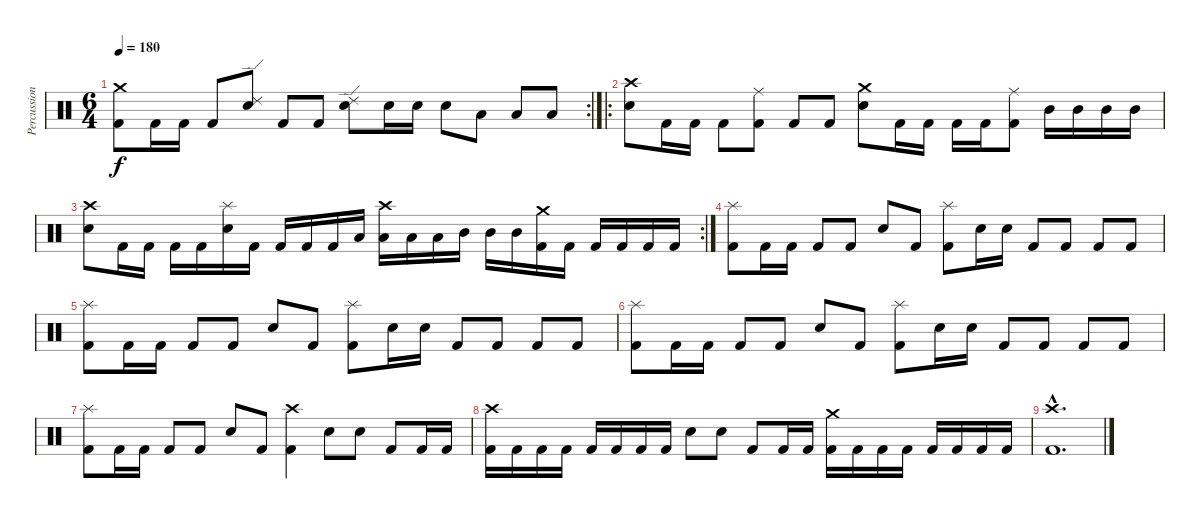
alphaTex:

\track ("Percussion" "Percussion") {instrument percussion}
\staff {score}
\articulation defaults
\rc 2
\ts (6 4)
\tempo 180
\clef neutral
\ks c
("Crash medium (hit)" "Kick (hit) 2").8{dy f} "Kick (hit) 2".16 "Kick (hit) 2".16 "Kick (hit) 2".8 ("Ride (edge) 2" "Snare (hit) 2").8 "Kick (hit) 2".8 "Kick (hit) 2".8 ("Ride (edge) 2" "Snare (hit) 2").8 "Snare (hit) 2".16 "Snare (hit) 2".16 "Snare (hit) 2".8 "Low Tom (hit)".8 "Low Tom (hit)".8 "Low Tom (hit)".8 |
\ro
("Crash high (hit)" "Snare (hit) 2").8 "Kick (hit) 2".16 "Kick (hit) 2".16 "Kick (hit) 2".8 ("Ride (middle)" "Kick (hit) 2").8 "Kick (hit) 2".8 "Kick (hit) 2".8 ("Crash medium (hit)" "Snare (hit) 2").8 "Kick (hit) 2".16 "Kick (hit) 2".16 "Kick (hit) 2".16 "Kick (hit) 2".16 ("Ride (middle)" "Kick (hit) 2").8 "Mid Tom (hit)".16 "Mid Tom (hit)".16 "Mid Tom (hit)".16 "Mid Tom (hit)".16 |
\rc 2
("Crash high (hit)" "Snare (hit) 2").8 "Kick (hit) 2".16 "Kick (hit) 2".16 "Kick (hit) 2".16 "Kick (hit) 2".16 ("Splash (hit)" "Snare (hit) 2").16 "Kick (hit) 2".16 "Kick (hit) 2".16 "Kick (hit) 2".16 "Kick (hit) 2".16 "Low Tom (hit)".16 ("Crash high (hit)" "Low Tom (hit)").16 "Low Tom (hit)".16 "Low Tom (hit)".16 "Mid Tom (hit)".16 "Mid Tom (hit)".16 "Mid Tom (hit)".16 ("Crash medium (hit)" "Kick (hit) 2").16 "Kick (hit) 2".16 "Kick (hit) 2".16 "Kick (hit) 2".16 "Kick (hit) 2".16 "Kick (hit) 2".16 |
("Splash (hit)" "Kick (hit) 2").8 "Kick (hit) 2".16 "Kick (hit) 2".16 "Kick (hit) 2".8 "Kick (hit) 2".8 "Snare (hit) 2".8 "Kick (hit) 2".8 ("Splash (hit)" "Kick (hit) 2").8 "Snare (hit) 2".16 "Snare (hit) 2".16 "Kick (hit) 2".8 "Kick (hit) 2".8 "Kick (hit) 2".8 "Kick (hit) 2".8 |
("Splash (hit)" "Kick (hit) 2").8 "Kick (hit) 2".16 "Kick (hit) 2".16 "Kick (hit) 2".8 "Kick (hit) 2".8 "Snare (hit) 2".8 "Kick (hit) 2".8 ("Splash (hit)" "Kick (hit) 2").8 "Snare (hit) 2".16 "Snare (hit) 2".16 "Kick (hit) 2".8 "Kick (hit) 2".8 "Kick (hit) 2".8 "Kick (hit) 2".8 |
("Splash (hit)" "Kick (hit) 2").8 "Kick (hit) 2".16 "Kick (hit) 2".16 "Kick (hit) 2".8 "Kick (hit) 2".8 "Snare (hit) 2".8 "Kick (hit) 2".8 ("Splash (hit)" "Kick (hit) 2").8 "Snare (hit) 2".16 "Snare (hit) 2".16 "Kick (hit) 2".8 "Kick (hit) 2".8 "Kick (hit) 2".8 "Kick (hit) 2".8 |
("Splash (hit)" "Kick (hit) 2").8 "Kick (hit) 2".16 "Kick (hit) 2".16 "Kick (hit) 2".8 "Kick (hit) 2".8 "Snare (hit) 2".8 "Kick (hit) 2".8 ("Crash high (hit)" "Kick (hit) 2").4 "Snare (hit) 2".8 "Snare (hit) 2".8 "Kick (hit) 2".8 "Kick (hit) 2".16 "Kick (hit) 2".16 |
("Crash high (hit)" "Kick (hit) 2").16 "Kick (hit) 2".16 "Kick (hit) 2".16 "Kick (hit) 2".16 "Kick (hit) 2".16 "Kick (hit) 2".16 "Kick (hit) 2".16 "Kick (hit) 2".16 "Snare (hit) 2".8 "Snare (hit) 2".8 "Kick (hit) 2".8 "Kick (hit) 2".16 "Kick (hit) 2".16 ("Crash medium (hit)" "Kick (hit) 2").16 "Kick (hit) 2".16 "Kick (hit) 2".16 "Kick (hit) 2".16 "Kick (hit) 2".16 "Kick (hit) 2".16 "Kick (hit) 2".16 "Kick (hit) 2".16 |
("Crash high (hit)"{hac} "Kick (hit) 2"{hac}).1{d}
